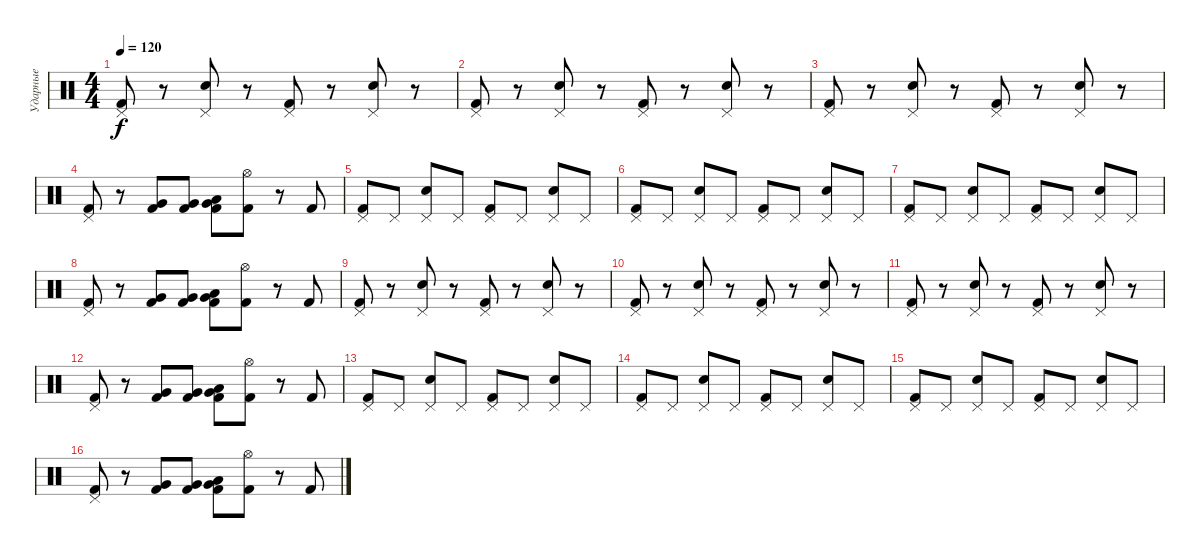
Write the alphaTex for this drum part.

\track ("Ударные" "Ударные") {instrument percussion}
\staff {score}
\articulation defaults
\ts (4 4)
\tempo 120
\clef neutral
\ks c
("Pedal Hi-Hat (hit)" "Kick (hit) 2").8{dy f} r.8 ("Pedal Hi-Hat (hit)" "Snare (hit) 2").8 r.8 ("Pedal Hi-Hat (hit)" "Kick (hit) 2").8 r.8 ("Pedal Hi-Hat (hit)" "Snare (hit) 2").8 r.8 |
("Pedal Hi-Hat (hit)" "Kick (hit) 2").8 r.8 ("Pedal Hi-Hat (hit)" "Snare (hit) 2").8 r.8 ("Pedal Hi-Hat (hit)" "Kick (hit) 2").8 r.8 ("Pedal Hi-Hat (hit)" "Snare (hit) 2").8 r.8 |
("Pedal Hi-Hat (hit)" "Kick (hit) 2").8 r.8 ("Pedal Hi-Hat (hit)" "Snare (hit) 2").8 r.8 ("Pedal Hi-Hat (hit)" "Kick (hit) 2").8 r.8 ("Pedal Hi-Hat (hit)" "Snare (hit) 2").8 r.8 |
("Pedal Hi-Hat (hit)" "Kick (hit) 2").8 r.8 ("Very Low Tom (hit)" "Kick (hit) 2").8 ("Very Low Tom (hit)" "Kick (hit) 2").8 ("Very Low Tom (hit)" "Low Tom (hit)" "Kick (hit) 2").8 ("Hi-Hat (open)" "Kick (hit) 2").8 r.8 "Kick (hit) 2".8 |
("Pedal Hi-Hat (hit)" "Kick (hit) 2").8 "Pedal Hi-Hat (hit)".8 ("Pedal Hi-Hat (hit)" "Snare (hit) 2").8 "Pedal Hi-Hat (hit)".8 ("Pedal Hi-Hat (hit)" "Kick (hit) 2").8 "Pedal Hi-Hat (hit)".8 ("Pedal Hi-Hat (hit)" "Snare (hit) 2").8 "Pedal Hi-Hat (hit)".8 |
("Pedal Hi-Hat (hit)" "Kick (hit) 2").8 "Pedal Hi-Hat (hit)".8 ("Pedal Hi-Hat (hit)" "Snare (hit) 2").8 "Pedal Hi-Hat (hit)".8 ("Pedal Hi-Hat (hit)" "Kick (hit) 2").8 "Pedal Hi-Hat (hit)".8 ("Pedal Hi-Hat (hit)" "Snare (hit) 2").8 "Pedal Hi-Hat (hit)".8 |
("Pedal Hi-Hat (hit)" "Kick (hit) 2").8 "Pedal Hi-Hat (hit)".8 ("Pedal Hi-Hat (hit)" "Snare (hit) 2").8 "Pedal Hi-Hat (hit)".8 ("Pedal Hi-Hat (hit)" "Kick (hit) 2").8 "Pedal Hi-Hat (hit)".8 ("Pedal Hi-Hat (hit)" "Snare (hit) 2").8 "Pedal Hi-Hat (hit)".8 |
("Pedal Hi-Hat (hit)" "Kick (hit) 2").8 r.8 ("Very Low Tom (hit)" "Kick (hit) 2").8 ("Very Low Tom (hit)" "Kick (hit) 2").8 ("Very Low Tom (hit)" "Low Tom (hit)" "Kick (hit) 2").8 ("Hi-Hat (open)" "Kick (hit) 2").8 r.8 "Kick (hit) 2".8 |
("Pedal Hi-Hat (hit)" "Kick (hit) 2").8 r.8 ("Pedal Hi-Hat (hit)" "Snare (hit) 2").8 r.8 ("Pedal Hi-Hat (hit)" "Kick (hit) 2").8 r.8 ("Pedal Hi-Hat (hit)" "Snare (hit) 2").8 r.8 |
("Pedal Hi-Hat (hit)" "Kick (hit) 2").8 r.8 ("Pedal Hi-Hat (hit)" "Snare (hit) 2").8 r.8 ("Pedal Hi-Hat (hit)" "Kick (hit) 2").8 r.8 ("Pedal Hi-Hat (hit)" "Snare (hit) 2").8 r.8 |
("Pedal Hi-Hat (hit)" "Kick (hit) 2").8 r.8 ("Pedal Hi-Hat (hit)" "Snare (hit) 2").8 r.8 ("Pedal Hi-Hat (hit)" "Kick (hit) 2").8 r.8 ("Pedal Hi-Hat (hit)" "Snare (hit) 2").8 r.8 |
("Pedal Hi-Hat (hit)" "Kick (hit) 2").8 r.8 ("Very Low Tom (hit)" "Kick (hit) 2").8 ("Very Low Tom (hit)" "Kick (hit) 2").8 ("Very Low Tom (hit)" "Low Tom (hit)" "Kick (hit) 2").8 ("Hi-Hat (open)" "Kick (hit) 2").8 r.8 "Kick (hit) 2".8 |
("Pedal Hi-Hat (hit)" "Kick (hit) 2").8 "Pedal Hi-Hat (hit)".8 ("Pedal Hi-Hat (hit)" "Snare (hit) 2").8 "Pedal Hi-Hat (hit)".8 ("Pedal Hi-Hat (hit)" "Kick (hit) 2").8 "Pedal Hi-Hat (hit)".8 ("Pedal Hi-Hat (hit)" "Snare (hit) 2").8 "Pedal Hi-Hat (hit)".8 |
("Pedal Hi-Hat (hit)" "Kick (hit) 2").8 "Pedal Hi-Hat (hit)".8 ("Pedal Hi-Hat (hit)" "Snare (hit) 2").8 "Pedal Hi-Hat (hit)".8 ("Pedal Hi-Hat (hit)" "Kick (hit) 2").8 "Pedal Hi-Hat (hit)".8 ("Pedal Hi-Hat (hit)" "Snare (hit) 2").8 "Pedal Hi-Hat (hit)".8 |
("Pedal Hi-Hat (hit)" "Kick (hit) 2").8 "Pedal Hi-Hat (hit)".8 ("Pedal Hi-Hat (hit)" "Snare (hit) 2").8 "Pedal Hi-Hat (hit)".8 ("Pedal Hi-Hat (hit)" "Kick (hit) 2").8 "Pedal Hi-Hat (hit)".8 ("Pedal Hi-Hat (hit)" "Snare (hit) 2").8 "Pedal Hi-Hat (hit)".8 |
("Pedal Hi-Hat (hit)" "Kick (hit) 2").8 r.8 ("Very Low Tom (hit)" "Kick (hit) 2").8 ("Very Low Tom (hit)" "Kick (hit) 2").8 ("Very Low Tom (hit)" "Low Tom (hit)" "Kick (hit) 2").8 ("Hi-Hat (open)" "Kick (hit) 2").8 r.8 "Kick (hit) 2".8
